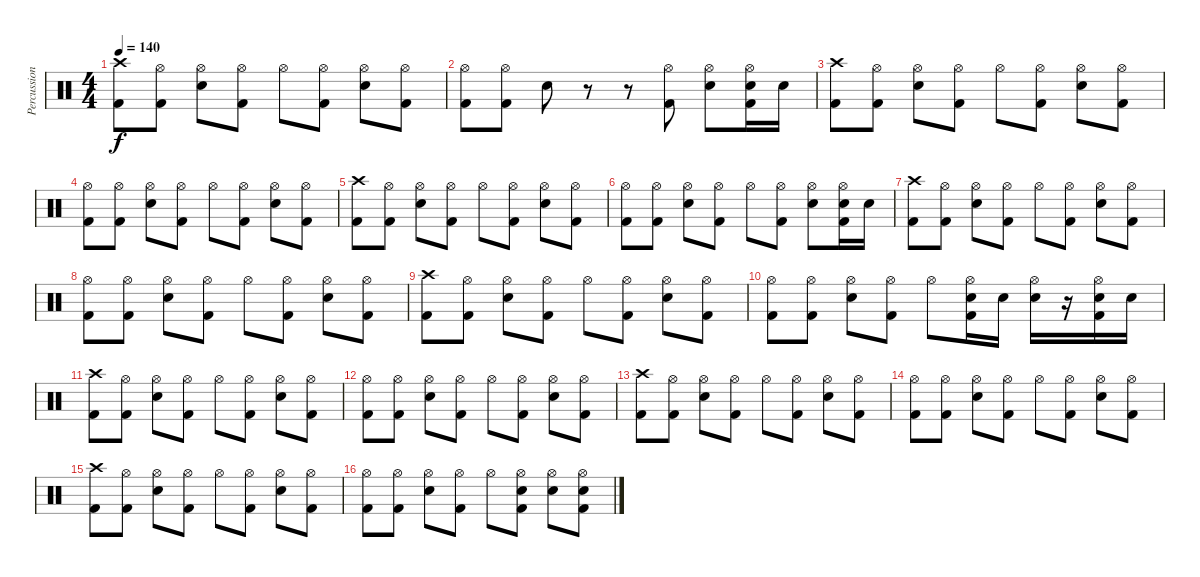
\track ("Percussion" "Percussion") {instrument percussion}
\staff {score}
\articulation defaults
\ts (4 4)
\tempo 140
\clef neutral
\ks c
("Crash high (hit)" "Kick (hit) 2").8{dy f} ("Hi-Hat (open)" "Kick (hit) 2").8 ("Hi-Hat (open)" "Electric Snare (hit)").8 ("Hi-Hat (open)" "Kick (hit) 2").8 "Hi-Hat (open)".8 ("Hi-Hat (open)" "Kick (hit) 2").8 ("Hi-Hat (open)" "Electric Snare (hit)").8 ("Hi-Hat (open)" "Kick (hit) 2").8 |
("Hi-Hat (open)" "Kick (hit) 2").8 ("Hi-Hat (open)" "Kick (hit) 2").8 "Electric Snare (hit)".8 r.8 r.8 ("Hi-Hat (open)" "Kick (hit) 2").8 ("Hi-Hat (open)" "Electric Snare (hit)").8 ("Hi-Hat (open)" "Electric Snare (hit)" "Kick (hit) 2").16 "Electric Snare (hit)".16 |
("Crash high (hit)" "Kick (hit) 2").8 ("Hi-Hat (open)" "Kick (hit) 2").8 ("Hi-Hat (open)" "Electric Snare (hit)").8 ("Hi-Hat (open)" "Kick (hit) 2").8 "Hi-Hat (open)".8 ("Hi-Hat (open)" "Kick (hit) 2").8 ("Hi-Hat (open)" "Electric Snare (hit)").8 ("Hi-Hat (open)" "Kick (hit) 2").8 |
("Hi-Hat (open)" "Kick (hit) 2").8 ("Hi-Hat (open)" "Kick (hit) 2").8 ("Hi-Hat (open)" "Electric Snare (hit)").8 ("Hi-Hat (open)" "Kick (hit) 2").8 "Hi-Hat (open)".8 ("Hi-Hat (open)" "Kick (hit) 2").8 ("Hi-Hat (open)" "Electric Snare (hit)").8 ("Hi-Hat (open)" "Kick (hit) 2").8 |
("Crash high (hit)" "Kick (hit) 2").8 ("Hi-Hat (open)" "Kick (hit) 2").8 ("Hi-Hat (open)" "Electric Snare (hit)").8 ("Hi-Hat (open)" "Kick (hit) 2").8 "Hi-Hat (open)".8 ("Hi-Hat (open)" "Kick (hit) 2").8 ("Hi-Hat (open)" "Electric Snare (hit)").8 ("Hi-Hat (open)" "Kick (hit) 2").8 |
("Hi-Hat (open)" "Kick (hit) 2").8 ("Hi-Hat (open)" "Kick (hit) 2").8 ("Hi-Hat (open)" "Electric Snare (hit)").8 ("Hi-Hat (open)" "Kick (hit) 2").8 "Hi-Hat (open)".8 ("Hi-Hat (open)" "Kick (hit) 2").8 ("Hi-Hat (open)" "Electric Snare (hit)").8 ("Hi-Hat (open)" "Electric Snare (hit)" "Kick (hit) 2").16 "Electric Snare (hit)".16 |
("Crash high (hit)" "Kick (hit) 2").8 ("Hi-Hat (open)" "Kick (hit) 2").8 ("Hi-Hat (open)" "Electric Snare (hit)").8 ("Hi-Hat (open)" "Kick (hit) 2").8 "Hi-Hat (open)".8 ("Hi-Hat (open)" "Kick (hit) 2").8 ("Hi-Hat (open)" "Electric Snare (hit)").8 ("Hi-Hat (open)" "Kick (hit) 2").8 |
("Hi-Hat (open)" "Kick (hit) 2").8 ("Hi-Hat (open)" "Kick (hit) 2").8 ("Hi-Hat (open)" "Electric Snare (hit)").8 ("Hi-Hat (open)" "Kick (hit) 2").8 "Hi-Hat (open)".8 ("Hi-Hat (open)" "Kick (hit) 2").8 ("Hi-Hat (open)" "Electric Snare (hit)").8 ("Hi-Hat (open)" "Kick (hit) 2").8 |
("Crash high (hit)" "Kick (hit) 2").8 ("Hi-Hat (open)" "Kick (hit) 2").8 ("Hi-Hat (open)" "Electric Snare (hit)").8 ("Hi-Hat (open)" "Kick (hit) 2").8 "Hi-Hat (open)".8 ("Hi-Hat (open)" "Kick (hit) 2").8 ("Hi-Hat (open)" "Electric Snare (hit)").8 ("Hi-Hat (open)" "Kick (hit) 2").8 |
("Hi-Hat (open)" "Kick (hit) 2").8 ("Hi-Hat (open)" "Kick (hit) 2").8 ("Hi-Hat (open)" "Electric Snare (hit)").8 ("Hi-Hat (open)" "Kick (hit) 2").8 "Hi-Hat (open)".8 ("Hi-Hat (open)" "Electric Snare (hit)" "Kick (hit) 2").16 "Electric Snare (hit)".16 ("Hi-Hat (open)" "Electric Snare (hit)").16 r.16 ("Hi-Hat (open)" "Electric Snare (hit)" "Kick (hit) 2").16 "Electric Snare (hit)".16 |
("Crash high (hit)" "Kick (hit) 2").8 ("Hi-Hat (open)" "Kick (hit) 2").8 ("Hi-Hat (open)" "Electric Snare (hit)").8 ("Hi-Hat (open)" "Kick (hit) 2").8 "Hi-Hat (open)".8 ("Hi-Hat (open)" "Kick (hit) 2").8 ("Hi-Hat (open)" "Electric Snare (hit)").8 ("Hi-Hat (open)" "Kick (hit) 2").8 |
("Hi-Hat (open)" "Kick (hit) 2").8 ("Hi-Hat (open)" "Kick (hit) 2").8 ("Hi-Hat (open)" "Electric Snare (hit)").8 ("Hi-Hat (open)" "Kick (hit) 2").8 "Hi-Hat (open)".8 ("Hi-Hat (open)" "Kick (hit) 2").8 ("Hi-Hat (open)" "Electric Snare (hit)").8 ("Hi-Hat (open)" "Kick (hit) 2").8 |
("Crash high (hit)" "Kick (hit) 2").8 ("Hi-Hat (open)" "Kick (hit) 2").8 ("Hi-Hat (open)" "Electric Snare (hit)").8 ("Hi-Hat (open)" "Kick (hit) 2").8 "Hi-Hat (open)".8 ("Hi-Hat (open)" "Kick (hit) 2").8 ("Hi-Hat (open)" "Electric Snare (hit)").8 ("Hi-Hat (open)" "Kick (hit) 2").8 |
("Hi-Hat (open)" "Kick (hit) 2").8 ("Hi-Hat (open)" "Kick (hit) 2").8 ("Hi-Hat (open)" "Electric Snare (hit)").8 ("Hi-Hat (open)" "Kick (hit) 2").8 "Hi-Hat (open)".8 ("Hi-Hat (open)" "Kick (hit) 2").8 ("Hi-Hat (open)" "Electric Snare (hit)").8 ("Hi-Hat (open)" "Kick (hit) 2").8 |
("Crash high (hit)" "Kick (hit) 2").8 ("Hi-Hat (open)" "Kick (hit) 2").8 ("Hi-Hat (open)" "Electric Snare (hit)").8 ("Hi-Hat (open)" "Kick (hit) 2").8 "Hi-Hat (open)".8 ("Hi-Hat (open)" "Kick (hit) 2").8 ("Hi-Hat (open)" "Electric Snare (hit)").8 ("Hi-Hat (open)" "Kick (hit) 2").8 |
("Hi-Hat (open)" "Kick (hit) 2").8 ("Hi-Hat (open)" "Kick (hit) 2").8 ("Hi-Hat (open)" "Electric Snare (hit)").8 ("Hi-Hat (open)" "Kick (hit) 2").8 "Hi-Hat (open)".8 ("Hi-Hat (open)" "Electric Snare (hit)" "Kick (hit) 2").8 ("Hi-Hat (open)" "Electric Snare (hit)").8 ("Hi-Hat (open)" "Electric Snare (hit)" "Kick (hit) 2").8
